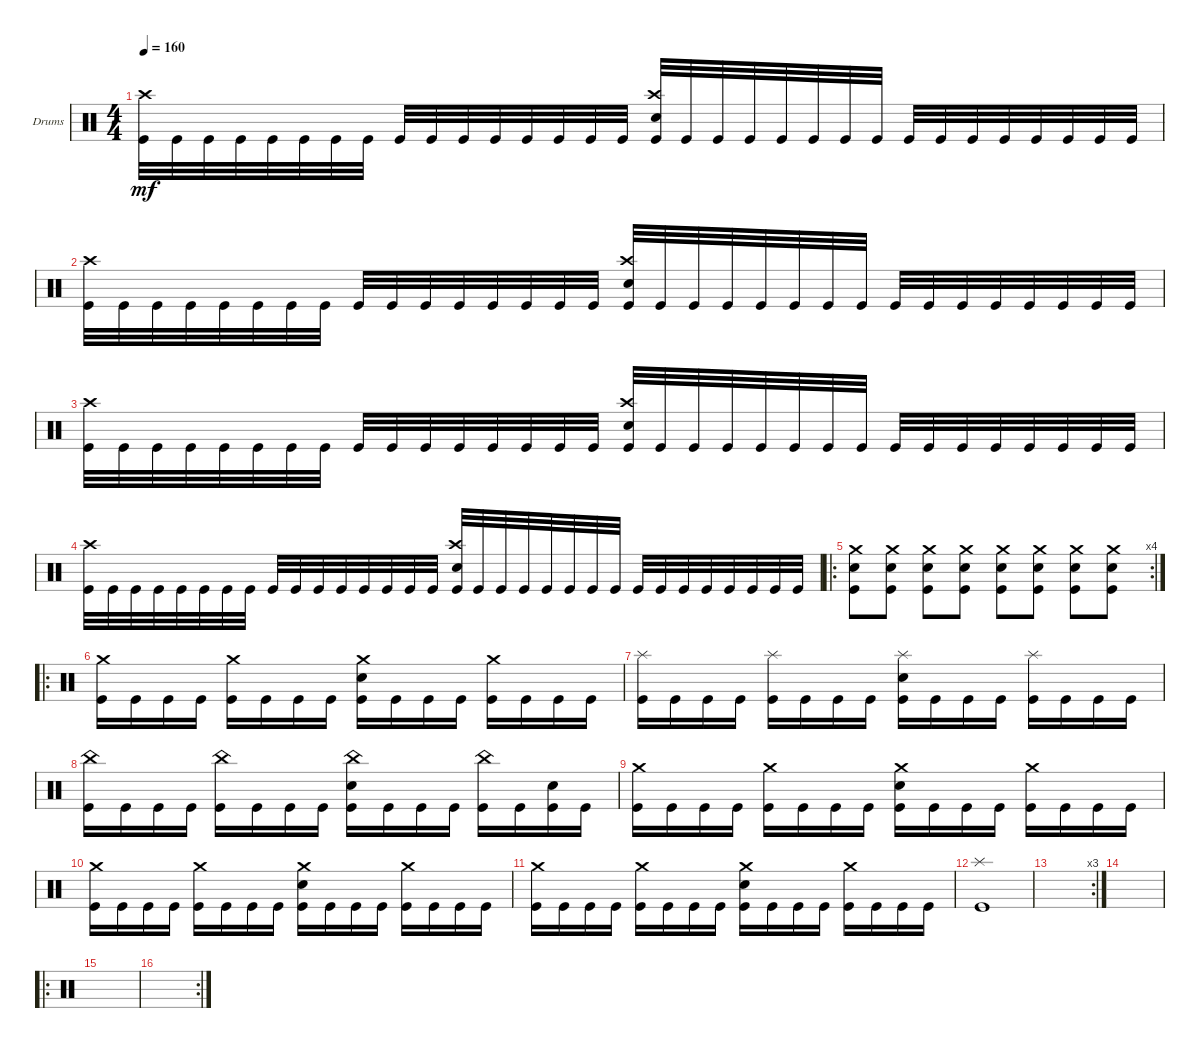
\defaultSystemsLayout 4
\bracketExtendMode groupsimilarinstruments
\firstSystemTrackNameOrientation horizontal
\otherSystemsTrackNameOrientation horizontal
\track ("Drumkit" "Drums") {instrument percussion}
\staff {score}
\articulation defaults
\ts (4 4)
\tempo 160
\clef neutral
\ks c
("Kick (hit)" "Crash high (hit)").32{dy mf} "Kick (hit)".32 "Kick (hit)".32 "Kick (hit)".32 "Kick (hit)".32 "Kick (hit)".32 "Kick (hit)".32 "Kick (hit)".32 "Kick (hit)".32 "Kick (hit)".32 "Kick (hit)".32 "Kick (hit)".32 "Kick (hit)".32 "Kick (hit)".32 "Kick (hit)".32 "Kick (hit)".32 ("Kick (hit)" "Snare (hit) 2" "Crash high (hit)").32 "Kick (hit)".32 "Kick (hit)".32 "Kick (hit)".32 "Kick (hit)".32 "Kick (hit)".32 "Kick (hit)".32 "Kick (hit)".32 "Kick (hit)".32 "Kick (hit)".32 "Kick (hit)".32 "Kick (hit)".32 "Kick (hit)".32 "Kick (hit)".32 "Kick (hit)".32 "Kick (hit)".32 |
("Kick (hit)" "Crash high (hit)").32 "Kick (hit)".32 "Kick (hit)".32 "Kick (hit)".32 "Kick (hit)".32 "Kick (hit)".32 "Kick (hit)".32 "Kick (hit)".32 "Kick (hit)".32 "Kick (hit)".32 "Kick (hit)".32 "Kick (hit)".32 "Kick (hit)".32 "Kick (hit)".32 "Kick (hit)".32 "Kick (hit)".32 ("Kick (hit)" "Snare (hit) 2" "Crash high (hit)").32 "Kick (hit)".32 "Kick (hit)".32 "Kick (hit)".32 "Kick (hit)".32 "Kick (hit)".32 "Kick (hit)".32 "Kick (hit)".32 "Kick (hit)".32 "Kick (hit)".32 "Kick (hit)".32 "Kick (hit)".32 "Kick (hit)".32 "Kick (hit)".32 "Kick (hit)".32 "Kick (hit)".32 |
("Kick (hit)" "Crash high (hit)").32 "Kick (hit)".32 "Kick (hit)".32 "Kick (hit)".32 "Kick (hit)".32 "Kick (hit)".32 "Kick (hit)".32 "Kick (hit)".32 "Kick (hit)".32 "Kick (hit)".32 "Kick (hit)".32 "Kick (hit)".32 "Kick (hit)".32 "Kick (hit)".32 "Kick (hit)".32 "Kick (hit)".32 ("Kick (hit)" "Snare (hit) 2" "Crash high (hit)").32 "Kick (hit)".32 "Kick (hit)".32 "Kick (hit)".32 "Kick (hit)".32 "Kick (hit)".32 "Kick (hit)".32 "Kick (hit)".32 "Kick (hit)".32 "Kick (hit)".32 "Kick (hit)".32 "Kick (hit)".32 "Kick (hit)".32 "Kick (hit)".32 "Kick (hit)".32 "Kick (hit)".32 |
("Kick (hit)" "Crash high (hit)").32 "Kick (hit)".32 "Kick (hit)".32 "Kick (hit)".32 "Kick (hit)".32 "Kick (hit)".32 "Kick (hit)".32 "Kick (hit)".32 "Kick (hit)".32 "Kick (hit)".32 "Kick (hit)".32 "Kick (hit)".32 "Kick (hit)".32 "Kick (hit)".32 "Kick (hit)".32 "Kick (hit)".32 ("Kick (hit)" "Snare (hit) 2" "Crash high (hit)").32 "Kick (hit)".32 "Kick (hit)".32 "Kick (hit)".32 "Kick (hit)".32 "Kick (hit)".32 "Kick (hit)".32 "Kick (hit)".32 "Kick (hit)".32 "Kick (hit)".32 "Kick (hit)".32 "Kick (hit)".32 "Kick (hit)".32 "Kick (hit)".32 "Kick (hit)".32 "Kick (hit)".32 |
\ro
\rc 4
("Kick (hit)" "Crash medium (hit)" "Snare (hit) 2").8 ("Kick (hit)" "Crash medium (hit)" "Snare (hit) 2").8 ("Kick (hit)" "Crash medium (hit)" "Snare (hit) 2").8 ("Kick (hit)" "Crash medium (hit)" "Snare (hit) 2").8 ("Kick (hit)" "Crash medium (hit)" "Snare (hit) 2").8 ("Kick (hit)" "Crash medium (hit)" "Snare (hit) 2").8 ("Kick (hit)" "Crash medium (hit)" "Snare (hit) 2").8 ("Kick (hit)" "Crash medium (hit)" "Snare (hit) 2").8 |
\ro
("Crash medium (hit)" "Kick (hit)").16 "Kick (hit)".16 "Kick (hit)".16 "Kick (hit)".16 ("Kick (hit)" "Crash medium (hit)").16 "Kick (hit)".16 "Kick (hit)".16 "Kick (hit)".16 ("Kick (hit)" "Crash medium (hit)" "Snare (hit) 2").16 "Kick (hit)".16 "Kick (hit)".16 "Kick (hit)".16 ("Kick (hit)" "Crash medium (hit)").16 "Kick (hit)".16 "Kick (hit)".16 "Kick (hit)".16 |
("Kick (hit)" "Splash (hit)").16 "Kick (hit)".16 "Kick (hit)".16 "Kick (hit)".16 ("Kick (hit)" "Splash (hit)").16 "Kick (hit)".16 "Kick (hit)".16 "Kick (hit)".16 ("Kick (hit)" "Splash (hit)" "Snare (hit) 2").16 "Kick (hit)".16 "Kick (hit)".16 "Kick (hit)".16 ("Kick (hit)" "Splash (hit)").16 "Kick (hit)".16 "Kick (hit)".16 "Kick (hit)".16 |
("Kick (hit)" "China (hit)").16 "Kick (hit)".16 "Kick (hit)".16 "Kick (hit)".16 ("Kick (hit)" "China (hit)").16 "Kick (hit)".16 "Kick (hit)".16 "Kick (hit)".16 ("Kick (hit)" "China (hit)" "Snare (hit) 2").16 "Kick (hit)".16 "Kick (hit)".16 "Kick (hit)".16 ("Kick (hit)" "China (hit)").16 "Kick (hit)".16 ("Kick (hit)" "Snare (hit) 2").16 "Kick (hit)".16 |
("Crash medium (hit)" "Kick (hit)").16 "Kick (hit)".16 "Kick (hit)".16 "Kick (hit)".16 ("Kick (hit)" "Crash medium (hit)").16 "Kick (hit)".16 "Kick (hit)".16 "Kick (hit)".16 ("Kick (hit)" "Crash medium (hit)" "Snare (hit) 2").16 "Kick (hit)".16 "Kick (hit)".16 "Kick (hit)".16 ("Kick (hit)" "Crash medium (hit)").16 "Kick (hit)".16 "Kick (hit)".16 "Kick (hit)".16 |
("Crash medium (hit)" "Kick (hit)").16 "Kick (hit)".16 "Kick (hit)".16 "Kick (hit)".16 ("Kick (hit)" "Crash medium (hit)").16 "Kick (hit)".16 "Kick (hit)".16 "Kick (hit)".16 ("Kick (hit)" "Crash medium (hit)" "Snare (hit) 2").16 "Kick (hit)".16 "Kick (hit)".16 "Kick (hit)".16 ("Kick (hit)" "Crash medium (hit)").16 "Kick (hit)".16 "Kick (hit)".16 "Kick (hit)".16 |
("Crash medium (hit)" "Kick (hit)").16 "Kick (hit)".16 "Kick (hit)".16 "Kick (hit)".16 ("Kick (hit)" "Crash medium (hit)").16 "Kick (hit)".16 "Kick (hit)".16 "Kick (hit)".16 ("Kick (hit)" "Crash medium (hit)" "Snare (hit) 2").16 "Kick (hit)".16 "Kick (hit)".16 "Kick (hit)".16 ("Kick (hit)" "Crash medium (hit)").16 "Kick (hit)".16 "Kick (hit)".16 "Kick (hit)".16 |
("Kick (hit)" "Splash (hit)").1 |
\rc 3
|
|
\ro
|
\rc 2
